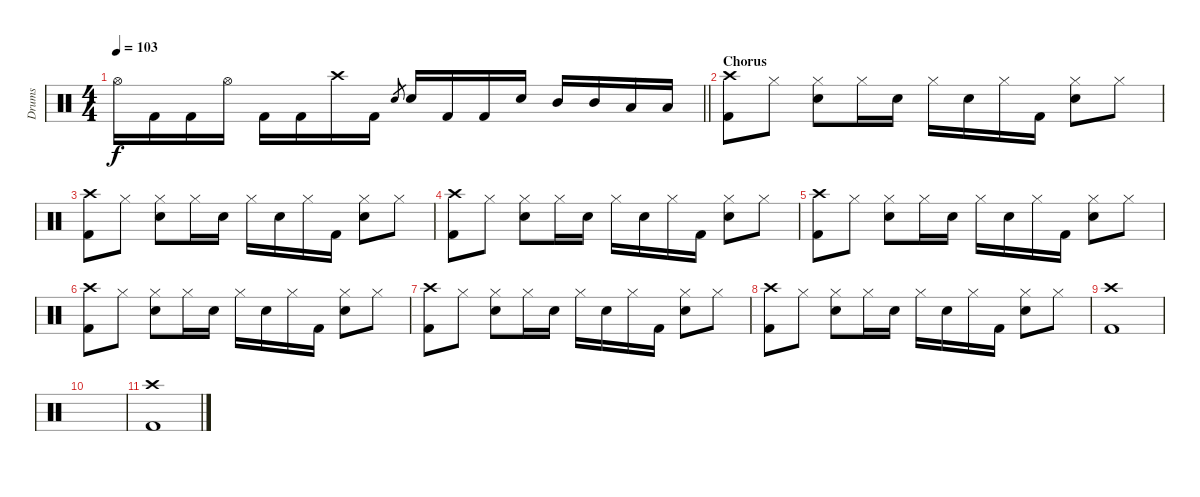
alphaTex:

\track ("Drums" "Drums") {instrument percussion}
\staff {score}
\articulation defaults
\ts (4 4)
\tempo 103
\clef neutral
\barLineRight lightlight
\ks c "Hi-Hat (open)".16{dy f} "Kick (hit) 2".16 "Kick (hit) 2".16 "Hi-Hat (open)".16 "Kick (hit) 2".16 "Kick (hit) 2".16 "Crash high (hit)".16 "Kick (hit) 2".16 "Snare (hit) 2".8{gr} "Snare (hit) 2".16 "Kick (hit) 2".16 "Kick (hit) 2".16 "Snare (hit) 2".16 "Mid Tom (hit)".16 "Mid Tom (hit)".16 "Low Tom (hit)".16 "Low Tom (hit)".16
|
\section ("" "Chorus")
("Crash high (hit)" "Kick (hit) 2").8 "Hi-Hat (closed)".8 ("Hi-Hat (closed)" "Snare (hit) 2").8 "Hi-Hat (closed)".16 "Snare (hit) 2".16 "Hi-Hat (closed)".16 "Snare (hit) 2".16 "Hi-Hat (closed)".16 "Kick (hit) 2".16 ("Hi-Hat (closed)" "Snare (hit) 2").8 "Hi-Hat (closed)".8 |
("Crash high (hit)" "Kick (hit) 2").8 "Hi-Hat (closed)".8 ("Hi-Hat (closed)" "Snare (hit) 2").8 "Hi-Hat (closed)".16 "Snare (hit) 2".16 "Hi-Hat (closed)".16 "Snare (hit) 2".16 "Hi-Hat (closed)".16 "Kick (hit) 2".16 ("Hi-Hat (closed)" "Snare (hit) 2").8 "Hi-Hat (closed)".8 |
("Crash high (hit)" "Kick (hit) 2").8 "Hi-Hat (closed)".8 ("Hi-Hat (closed)" "Snare (hit) 2").8 "Hi-Hat (closed)".16 "Snare (hit) 2".16 "Hi-Hat (closed)".16 "Snare (hit) 2".16 "Hi-Hat (closed)".16 "Kick (hit) 2".16 ("Hi-Hat (closed)" "Snare (hit) 2").8 "Hi-Hat (closed)".8 |
("Crash high (hit)" "Kick (hit) 2").8 "Hi-Hat (closed)".8 ("Hi-Hat (closed)" "Snare (hit) 2").8 "Hi-Hat (closed)".16 "Snare (hit) 2".16 "Hi-Hat (closed)".16 "Snare (hit) 2".16 "Hi-Hat (closed)".16 "Kick (hit) 2".16 ("Hi-Hat (closed)" "Snare (hit) 2").8 "Hi-Hat (closed)".8 |
("Crash high (hit)" "Kick (hit) 2").8 "Hi-Hat (closed)".8 ("Hi-Hat (closed)" "Snare (hit) 2").8 "Hi-Hat (closed)".16 "Snare (hit) 2".16 "Hi-Hat (closed)".16 "Snare (hit) 2".16 "Hi-Hat (closed)".16 "Kick (hit) 2".16 ("Hi-Hat (closed)" "Snare (hit) 2").8 "Hi-Hat (closed)".8 |
("Crash high (hit)" "Kick (hit) 2").8 "Hi-Hat (closed)".8 ("Hi-Hat (closed)" "Snare (hit) 2").8 "Hi-Hat (closed)".16 "Snare (hit) 2".16 "Hi-Hat (closed)".16 "Snare (hit) 2".16 "Hi-Hat (closed)".16 "Kick (hit) 2".16 ("Hi-Hat (closed)" "Snare (hit) 2").8 "Hi-Hat (closed)".8 |
("Crash high (hit)" "Kick (hit) 2").8 "Hi-Hat (closed)".8 ("Hi-Hat (closed)" "Snare (hit) 2").8 "Hi-Hat (closed)".16 "Snare (hit) 2".16 "Hi-Hat (closed)".16 "Snare (hit) 2".16 "Hi-Hat (closed)".16 "Kick (hit) 2".16 ("Hi-Hat (closed)" "Snare (hit) 2").8 "Hi-Hat (closed)".8 |
("Crash high (hit)" "Kick (hit) 2").1 |
|
("Crash high (hit)" "Kick (hit) 2").1
